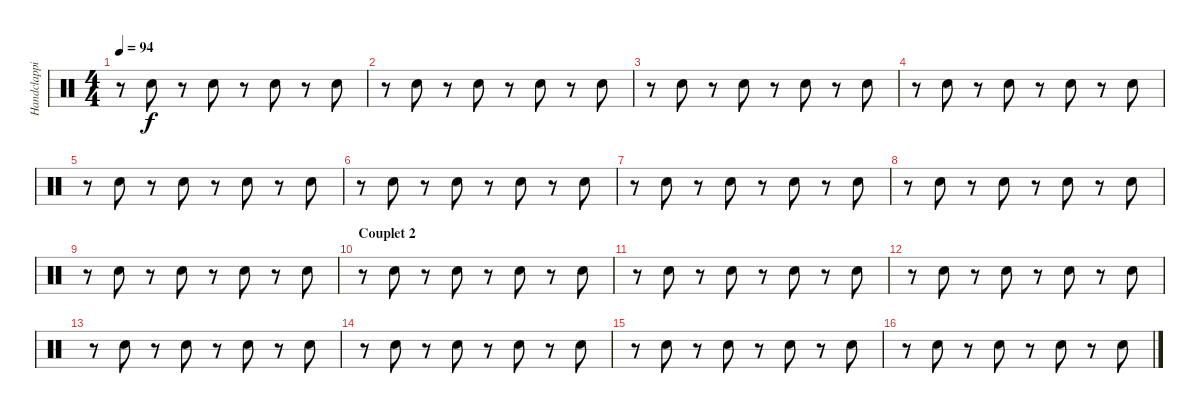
\track ("Handclapping" "Handclappi") {instrument percussion}
\staff {score}
\articulation defaults
\ts (4 4)
\tempo 94
\clef neutral
\ks c
r.8{dy f} "Hand Clap (hit)".8 r.8 "Hand Clap (hit)".8 r.8 "Hand Clap (hit)".8 r.8 "Hand Clap (hit)".8 |
r.8 "Hand Clap (hit)".8 r.8 "Hand Clap (hit)".8 r.8 "Hand Clap (hit)".8 r.8 "Hand Clap (hit)".8 |
r.8 "Hand Clap (hit)".8 r.8 "Hand Clap (hit)".8 r.8 "Hand Clap (hit)".8 r.8 "Hand Clap (hit)".8 |
r.8 "Hand Clap (hit)".8 r.8 "Hand Clap (hit)".8 r.8 "Hand Clap (hit)".8 r.8 "Hand Clap (hit)".8 |
r.8 "Hand Clap (hit)".8 r.8 "Hand Clap (hit)".8 r.8 "Hand Clap (hit)".8 r.8 "Hand Clap (hit)".8 |
r.8 "Hand Clap (hit)".8 r.8 "Hand Clap (hit)".8 r.8 "Hand Clap (hit)".8 r.8 "Hand Clap (hit)".8 |
r.8 "Hand Clap (hit)".8 r.8 "Hand Clap (hit)".8 r.8 "Hand Clap (hit)".8 r.8 "Hand Clap (hit)".8 |
r.8 "Hand Clap (hit)".8 r.8 "Hand Clap (hit)".8 r.8 "Hand Clap (hit)".8 r.8 "Hand Clap (hit)".8 |
r.8 "Hand Clap (hit)".8 r.8 "Hand Clap (hit)".8 r.8 "Hand Clap (hit)".8 r.8 "Hand Clap (hit)".8 |
\section ("" "Couplet 2")
r.8 "Hand Clap (hit)".8 r.8 "Hand Clap (hit)".8 r.8 "Hand Clap (hit)".8 r.8 "Hand Clap (hit)".8 |
r.8 "Hand Clap (hit)".8 r.8 "Hand Clap (hit)".8 r.8 "Hand Clap (hit)".8 r.8 "Hand Clap (hit)".8 |
r.8 "Hand Clap (hit)".8 r.8 "Hand Clap (hit)".8 r.8 "Hand Clap (hit)".8 r.8 "Hand Clap (hit)".8 |
r.8 "Hand Clap (hit)".8 r.8 "Hand Clap (hit)".8 r.8 "Hand Clap (hit)".8 r.8 "Hand Clap (hit)".8 |
r.8 "Hand Clap (hit)".8 r.8 "Hand Clap (hit)".8 r.8 "Hand Clap (hit)".8 r.8 "Hand Clap (hit)".8 |
r.8 "Hand Clap (hit)".8 r.8 "Hand Clap (hit)".8 r.8 "Hand Clap (hit)".8 r.8 "Hand Clap (hit)".8 |
r.8 "Hand Clap (hit)".8 r.8 "Hand Clap (hit)".8 r.8 "Hand Clap (hit)".8 r.8 "Hand Clap (hit)".8
